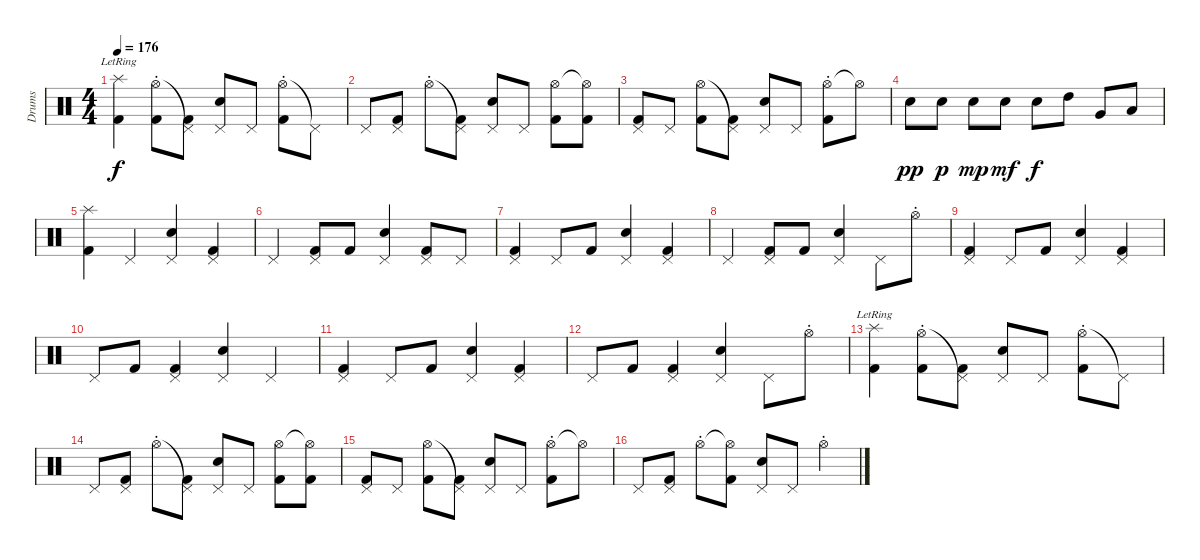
\track ("Drums" "Drums") {instrument percussion}
\staff {score}
\articulation defaults
\ts (4 4)
\tempo 176
\clef neutral
\ks c
("Kick (hit) 2"{lr} "Splash (hit)").4{dy f} ("Hi-Hat (open)"{st} "Kick (hit) 2").8 ("Pedal Hi-Hat (hit)"{t} "Kick (hit) 2").8 ("Pedal Hi-Hat (hit)" "Electric Snare (hit)").8 "Pedal Hi-Hat (hit)".8 ("Hi-Hat (open)"{st} "Kick (hit) 2").8 "Pedal Hi-Hat (hit)"{t}.8 |
"Pedal Hi-Hat (hit)".8 ("Pedal Hi-Hat (hit)" "Kick (hit) 2").8 "Hi-Hat (open)"{st}.8 ("Pedal Hi-Hat (hit)"{t} "Kick (hit) 2").8 ("Pedal Hi-Hat (hit)" "Electric Snare (hit)").8 "Pedal Hi-Hat (hit)".8 ("Hi-Hat (open)" "Kick (hit) 2").8 ("Hi-Hat (open)"{t} "Kick (hit) 2").8 |
("Kick (hit) 2" "Pedal Hi-Hat (hit)").8 "Pedal Hi-Hat (hit)".8 ("Hi-Hat (open)" "Kick (hit) 2").8 ("Pedal Hi-Hat (hit)"{t} "Kick (hit) 2").8 ("Pedal Hi-Hat (hit)" "Electric Snare (hit)").8 "Pedal Hi-Hat (hit)".8 ("Hi-Hat (open)"{st} "Kick (hit) 2").8 "Hi-Hat (open)"{t}.8 |
"Electric Snare (hit)".8{dy pp} "Electric Snare (hit)".8{dy p} "Electric Snare (hit)".8{dy mp} "Electric Snare (hit)".8{dy mf} "Electric Snare (hit)".8{dy f} "High Tom (hit)".8{balance 2} "Very Low Tom (hit)".8{balance 8} "Low Floor Tom (hit)".8{balance 14} |
("Splash (hit)" "Kick (hit) 2").4{balance 8} "Pedal Hi-Hat (hit)".4 ("Pedal Hi-Hat (hit)" "Electric Snare (hit)").4 ("Pedal Hi-Hat (hit)" "Kick (hit) 2").4 |
"Pedal Hi-Hat (hit)".4 ("Pedal Hi-Hat (hit)" "Kick (hit) 2").8 "Kick (hit) 2".8 ("Pedal Hi-Hat (hit)" "Electric Snare (hit)").4 ("Kick (hit) 2" "Pedal Hi-Hat (hit)").8 "Pedal Hi-Hat (hit)".8 |
("Pedal Hi-Hat (hit)" "Kick (hit) 2").4 "Pedal Hi-Hat (hit)".8 "Kick (hit) 2".8 ("Pedal Hi-Hat (hit)" "Electric Snare (hit)").4 ("Pedal Hi-Hat (hit)" "Kick (hit) 2").4 |
"Pedal Hi-Hat (hit)".4 ("Pedal Hi-Hat (hit)" "Kick (hit) 2").8 "Kick (hit) 2".8 ("Pedal Hi-Hat (hit)" "Electric Snare (hit)").4 "Pedal Hi-Hat (hit)".8 "Hi-Hat (open)"{st}.8 |
("Pedal Hi-Hat (hit)" "Kick (hit) 2").4 "Pedal Hi-Hat (hit)".8 "Kick (hit) 2".8 ("Pedal Hi-Hat (hit)" "Electric Snare (hit)").4 ("Pedal Hi-Hat (hit)" "Kick (hit) 2").4 |
"Pedal Hi-Hat (hit)".8 "Kick (hit) 2".8 ("Pedal Hi-Hat (hit)" "Kick (hit) 2").4 ("Pedal Hi-Hat (hit)" "Electric Snare (hit)").4 "Pedal Hi-Hat (hit)".4 |
("Pedal Hi-Hat (hit)" "Kick (hit) 2").4 "Pedal Hi-Hat (hit)".8 "Kick (hit) 2".8 ("Pedal Hi-Hat (hit)" "Electric Snare (hit)").4 ("Pedal Hi-Hat (hit)" "Kick (hit) 2").4 |
"Pedal Hi-Hat (hit)".8 "Kick (hit) 2".8 ("Kick (hit) 2" "Pedal Hi-Hat (hit)").4 ("Pedal Hi-Hat (hit)" "Electric Snare (hit)").4 "Pedal Hi-Hat (hit)".8 "Hi-Hat (open)"{st}.8 |
("Kick (hit) 2"{lr} "Splash (hit)").4 ("Hi-Hat (open)"{st} "Kick (hit) 2").8 ("Pedal Hi-Hat (hit)"{t} "Kick (hit) 2").8 ("Pedal Hi-Hat (hit)" "Electric Snare (hit)").8 "Pedal Hi-Hat (hit)".8 ("Hi-Hat (open)"{st} "Kick (hit) 2").8 "Pedal Hi-Hat (hit)"{t}.8 |
"Pedal Hi-Hat (hit)".8 ("Pedal Hi-Hat (hit)" "Kick (hit) 2").8 "Hi-Hat (open)"{st}.8 ("Pedal Hi-Hat (hit)"{t} "Kick (hit) 2").8 ("Pedal Hi-Hat (hit)" "Electric Snare (hit)").8 "Pedal Hi-Hat (hit)".8 ("Hi-Hat (open)" "Kick (hit) 2").8 ("Hi-Hat (open)"{t} "Kick (hit) 2").8 |
("Kick (hit) 2" "Pedal Hi-Hat (hit)").8 "Pedal Hi-Hat (hit)".8 ("Hi-Hat (open)" "Kick (hit) 2").8 ("Pedal Hi-Hat (hit)"{t} "Kick (hit) 2").8 ("Pedal Hi-Hat (hit)" "Electric Snare (hit)").8 "Pedal Hi-Hat (hit)".8 ("Hi-Hat (open)"{st} "Kick (hit) 2").8 "Hi-Hat (open)"{t}.8 |
"Pedal Hi-Hat (hit)".8 ("Pedal Hi-Hat (hit)" "Kick (hit) 2").8 "Hi-Hat (open)"{st}.8 ("Hi-Hat (open)"{t} "Kick (hit) 2").8 ("Pedal Hi-Hat (hit)" "Electric Snare (hit)").8 "Pedal Hi-Hat (hit)".8 "Hi-Hat (open)"{st}.4
